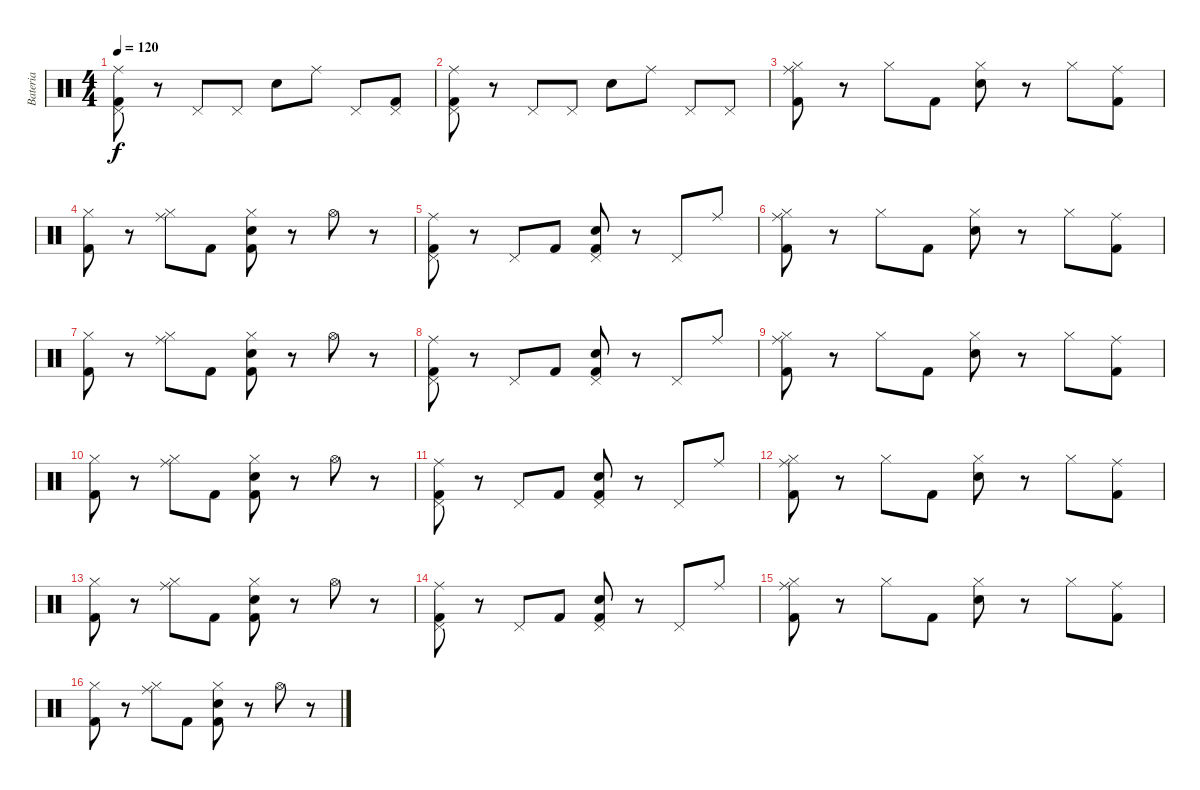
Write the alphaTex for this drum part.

\track ("Bateria" "Bateria") {instrument percussion}
\staff {score}
\articulation defaults
\ts (4 4)
\tempo 120
\clef neutral
\ks c
("Kick (hit) 2" "Pedal Hi-Hat (hit)" "Ride (middle)").8{dy f} r.8 "Pedal Hi-Hat (hit)".8 "Pedal Hi-Hat (hit)".8 "Snare (hit) 2".8 "Ride (middle)".8 "Pedal Hi-Hat (hit)".8 ("Kick (hit) 2" "Pedal Hi-Hat (hit)").8 |
("Kick (hit) 2" "Pedal Hi-Hat (hit)" "Ride (middle)").8 r.8 "Pedal Hi-Hat (hit)".8 "Pedal Hi-Hat (hit)".8 "Snare (hit) 2".8 "Ride (middle)".8 "Pedal Hi-Hat (hit)".8 "Pedal Hi-Hat (hit)".8 |
("Kick (hit) 2" "Hi-Hat (closed)" "Ride (middle)").8 r.8 "Hi-Hat (closed)".8 "Kick (hit) 2".8 ("Hi-Hat (closed)" "Snare (hit) 2").8 r.8 "Hi-Hat (closed)".8 ("Kick (hit) 2" "Ride (middle)").8 |
("Kick (hit) 2" "Hi-Hat (closed)").8 r.8 ("Hi-Hat (closed)" "Ride (middle)").8 "Kick (hit) 2".8 ("Kick (hit) 2" "Hi-Hat (closed)" "Snare (hit) 2").8 r.8 "Hi-Hat (open)".8 r.8 |
("Kick (hit) 2" "Pedal Hi-Hat (hit)" "Ride (middle)").8 r.8 "Pedal Hi-Hat (hit)".8 "Kick (hit) 2".8 ("Kick (hit) 2" "Pedal Hi-Hat (hit)" "Snare (hit) 2").8 r.8 "Pedal Hi-Hat (hit)".8 "Ride (middle)".8 |
("Kick (hit) 2" "Hi-Hat (closed)" "Ride (middle)").8 r.8 "Hi-Hat (closed)".8 "Kick (hit) 2".8 ("Hi-Hat (closed)" "Snare (hit) 2").8 r.8 "Hi-Hat (closed)".8 ("Kick (hit) 2" "Ride (middle)").8 |
("Kick (hit) 2" "Hi-Hat (closed)").8 r.8 ("Hi-Hat (closed)" "Ride (middle)").8 "Kick (hit) 2".8 ("Kick (hit) 2" "Hi-Hat (closed)" "Snare (hit) 2").8 r.8 "Hi-Hat (open)".8 r.8 |
("Kick (hit) 2" "Pedal Hi-Hat (hit)" "Ride (middle)").8 r.8 "Pedal Hi-Hat (hit)".8 "Kick (hit) 2".8 ("Kick (hit) 2" "Pedal Hi-Hat (hit)" "Snare (hit) 2").8 r.8 "Pedal Hi-Hat (hit)".8 "Ride (middle)".8 |
("Kick (hit) 2" "Hi-Hat (closed)" "Ride (middle)").8 r.8 "Hi-Hat (closed)".8 "Kick (hit) 2".8 ("Hi-Hat (closed)" "Snare (hit) 2").8 r.8 "Hi-Hat (closed)".8 ("Kick (hit) 2" "Ride (middle)").8 |
("Kick (hit) 2" "Hi-Hat (closed)").8 r.8 ("Hi-Hat (closed)" "Ride (middle)").8 "Kick (hit) 2".8 ("Kick (hit) 2" "Hi-Hat (closed)" "Snare (hit) 2").8 r.8 "Hi-Hat (open)".8 r.8 |
("Kick (hit) 2" "Pedal Hi-Hat (hit)" "Ride (middle)").8 r.8 "Pedal Hi-Hat (hit)".8 "Kick (hit) 2".8 ("Kick (hit) 2" "Pedal Hi-Hat (hit)" "Snare (hit) 2").8 r.8 "Pedal Hi-Hat (hit)".8 "Ride (middle)".8 |
("Kick (hit) 2" "Hi-Hat (closed)" "Ride (middle)").8 r.8 "Hi-Hat (closed)".8 "Kick (hit) 2".8 ("Hi-Hat (closed)" "Snare (hit) 2").8 r.8 "Hi-Hat (closed)".8 ("Kick (hit) 2" "Ride (middle)").8 |
("Kick (hit) 2" "Hi-Hat (closed)").8 r.8 ("Hi-Hat (closed)" "Ride (middle)").8 "Kick (hit) 2".8 ("Kick (hit) 2" "Hi-Hat (closed)" "Snare (hit) 2").8 r.8 "Hi-Hat (open)".8 r.8 |
("Kick (hit) 2" "Pedal Hi-Hat (hit)" "Ride (middle)").8 r.8 "Pedal Hi-Hat (hit)".8 "Kick (hit) 2".8 ("Kick (hit) 2" "Pedal Hi-Hat (hit)" "Snare (hit) 2").8 r.8 "Pedal Hi-Hat (hit)".8 "Ride (middle)".8 |
("Kick (hit) 2" "Hi-Hat (closed)" "Ride (middle)").8 r.8 "Hi-Hat (closed)".8 "Kick (hit) 2".8 ("Hi-Hat (closed)" "Snare (hit) 2").8 r.8 "Hi-Hat (closed)".8 ("Kick (hit) 2" "Ride (middle)").8 |
("Kick (hit) 2" "Hi-Hat (closed)").8 r.8 ("Hi-Hat (closed)" "Ride (middle)").8 "Kick (hit) 2".8 ("Kick (hit) 2" "Hi-Hat (closed)" "Snare (hit) 2").8 r.8 "Hi-Hat (open)".8 r.8
